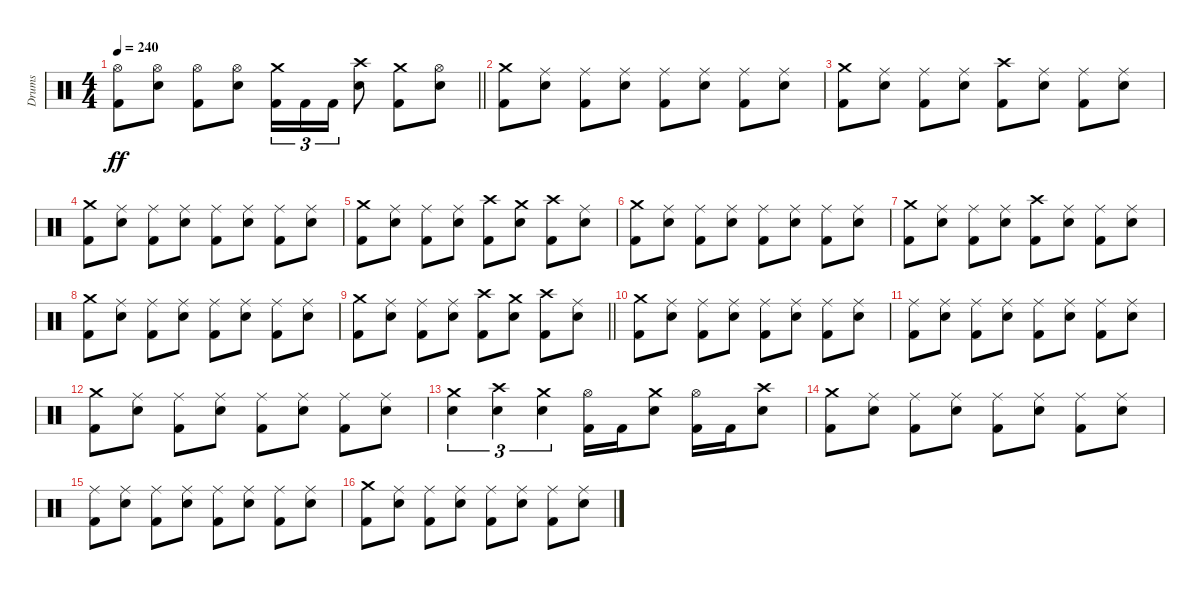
\track ("Drums" "Drums") {instrument percussion}
\staff {score}
\articulation defaults
\ts (4 4)
\tempo 240
\clef neutral
\barLineRight lightlight
\ks c
("Hi-Hat (open)" "Kick (hit) 2").8{dy ff} ("Hi-Hat (open)" "Snare (hit) 2").8 ("Hi-Hat (open)" "Kick (hit) 2").8 ("Hi-Hat (open)" "Snare (hit) 2").8 ("Crash medium (hit)" "Kick (hit) 2").16{tu (3 2)} "Kick (hit) 2".16{tu (3 2)} "Kick (hit) 2".16{tu (3 2)} ("Crash high (hit)" "Snare (hit) 2").8 ("Crash medium (hit)" "Kick (hit) 2").8 ("Hi-Hat (open)" "Snare (hit) 2").8 |
("Crash medium (hit)" "Kick (hit) 2").8 ("Ride (middle)" "Snare (hit) 2").8 ("Ride (middle)" "Kick (hit) 2").8 ("Ride (middle)" "Snare (hit) 2").8 ("Ride (middle)" "Kick (hit) 2").8 ("Ride (middle)" "Snare (hit) 2").8 ("Ride (middle)" "Kick (hit) 2").8 ("Ride (middle)" "Snare (hit) 2").8 |
("Crash medium (hit)" "Kick (hit) 2").8 ("Ride (middle)" "Snare (hit) 2").8 ("Ride (middle)" "Kick (hit) 2").8 ("Ride (middle)" "Snare (hit) 2").8 ("Crash high (hit)" "Kick (hit) 2").8 ("Ride (middle)" "Snare (hit) 2").8 ("Ride (middle)" "Kick (hit) 2").8 ("Ride (middle)" "Snare (hit) 2").8 |
("Crash medium (hit)" "Kick (hit) 2").8 ("Ride (middle)" "Snare (hit) 2").8 ("Ride (middle)" "Kick (hit) 2").8 ("Ride (middle)" "Snare (hit) 2").8 ("Ride (middle)" "Kick (hit) 2").8 ("Ride (middle)" "Snare (hit) 2").8 ("Ride (middle)" "Kick (hit) 2").8 ("Ride (middle)" "Snare (hit) 2").8 |
("Crash medium (hit)" "Kick (hit) 2").8 ("Ride (middle)" "Snare (hit) 2").8 ("Ride (middle)" "Kick (hit) 2").8 ("Ride (middle)" "Snare (hit) 2").8 ("Crash high (hit)" "Kick (hit) 2").8 ("Crash medium (hit)" "Snare (hit) 2").8 ("Crash high (hit)" "Kick (hit) 2").8 ("Ride (middle)" "Snare (hit) 2").8 |
("Crash medium (hit)" "Kick (hit) 2").8 ("Ride (middle)" "Snare (hit) 2").8 ("Ride (middle)" "Kick (hit) 2").8 ("Ride (middle)" "Snare (hit) 2").8 ("Ride (middle)" "Kick (hit) 2").8 ("Ride (middle)" "Snare (hit) 2").8 ("Ride (middle)" "Kick (hit) 2").8 ("Ride (middle)" "Snare (hit) 2").8 |
("Crash medium (hit)" "Kick (hit) 2").8 ("Ride (middle)" "Snare (hit) 2").8 ("Ride (middle)" "Kick (hit) 2").8 ("Ride (middle)" "Snare (hit) 2").8 ("Crash high (hit)" "Kick (hit) 2").8 ("Ride (middle)" "Snare (hit) 2").8 ("Ride (middle)" "Kick (hit) 2").8 ("Ride (middle)" "Snare (hit) 2").8 |
("Crash medium (hit)" "Kick (hit) 2").8 ("Ride (middle)" "Snare (hit) 2").8 ("Ride (middle)" "Kick (hit) 2").8 ("Ride (middle)" "Snare (hit) 2").8 ("Ride (middle)" "Kick (hit) 2").8 ("Ride (middle)" "Snare (hit) 2").8 ("Ride (middle)" "Kick (hit) 2").8 ("Ride (middle)" "Snare (hit) 2").8 |
\barLineRight lightlight
("Crash medium (hit)" "Kick (hit) 2").8 ("Ride (middle)" "Snare (hit) 2").8 ("Ride (middle)" "Kick (hit) 2").8 ("Ride (middle)" "Snare (hit) 2").8 ("Crash high (hit)" "Kick (hit) 2").8 ("Crash medium (hit)" "Snare (hit) 2").8 ("Crash high (hit)" "Kick (hit) 2").8 ("Ride (middle)" "Snare (hit) 2").8 |
("Crash medium (hit)" "Kick (hit) 2").8 ("Ride (middle)" "Snare (hit) 2").8 ("Ride (middle)" "Kick (hit) 2").8 ("Ride (middle)" "Snare (hit) 2").8 ("Ride (middle)" "Kick (hit) 2").8 ("Ride (middle)" "Snare (hit) 2").8 ("Ride (middle)" "Kick (hit) 2").8 ("Ride (middle)" "Snare (hit) 2").8 |
("Ride (middle)" "Kick (hit) 2").8 ("Ride (middle)" "Snare (hit) 2").8 ("Ride (middle)" "Kick (hit) 2").8 ("Ride (middle)" "Snare (hit) 2").8 ("Ride (middle)" "Kick (hit) 2").8 ("Ride (middle)" "Snare (hit) 2").8 ("Ride (middle)" "Kick (hit) 2").8 ("Ride (middle)" "Snare (hit) 2").8 |
("Crash medium (hit)" "Kick (hit) 2").8 ("Ride (middle)" "Snare (hit) 2").8 ("Ride (middle)" "Kick (hit) 2").8 ("Ride (middle)" "Snare (hit) 2").8 ("Ride (middle)" "Kick (hit) 2").8 ("Ride (middle)" "Snare (hit) 2").8 ("Ride (middle)" "Kick (hit) 2").8 ("Ride (middle)" "Snare (hit) 2").8 |
("Crash medium (hit)" "Snare (hit) 2").4{tu (3 2)} ("Crash high (hit)" "Snare (hit) 2").4{tu (3 2)} ("Crash medium (hit)" "Snare (hit) 2").4{tu (3 2)} ("Hi-Hat (open)" "Kick (hit) 2").16 "Kick (hit) 2".16 ("Crash medium (hit)" "Snare (hit) 2").8 ("Hi-Hat (open)" "Kick (hit) 2").16 "Kick (hit) 2".16 ("Crash high (hit)" "Snare (hit) 2").8 |
("Crash medium (hit)" "Kick (hit) 2").8 ("Ride (middle)" "Snare (hit) 2").8 ("Ride (middle)" "Kick (hit) 2").8 ("Ride (middle)" "Snare (hit) 2").8 ("Ride (middle)" "Kick (hit) 2").8 ("Ride (middle)" "Snare (hit) 2").8 ("Ride (middle)" "Kick (hit) 2").8 ("Ride (middle)" "Snare (hit) 2").8 |
("Ride (middle)" "Kick (hit) 2").8 ("Ride (middle)" "Snare (hit) 2").8 ("Ride (middle)" "Kick (hit) 2").8 ("Ride (middle)" "Snare (hit) 2").8 ("Ride (middle)" "Kick (hit) 2").8 ("Ride (middle)" "Snare (hit) 2").8 ("Ride (middle)" "Kick (hit) 2").8 ("Ride (middle)" "Snare (hit) 2").8 |
("Crash medium (hit)" "Kick (hit) 2").8 ("Ride (middle)" "Snare (hit) 2").8 ("Ride (middle)" "Kick (hit) 2").8 ("Ride (middle)" "Snare (hit) 2").8 ("Ride (middle)" "Kick (hit) 2").8 ("Ride (middle)" "Snare (hit) 2").8 ("Ride (middle)" "Kick (hit) 2").8 ("Ride (middle)" "Snare (hit) 2").8
